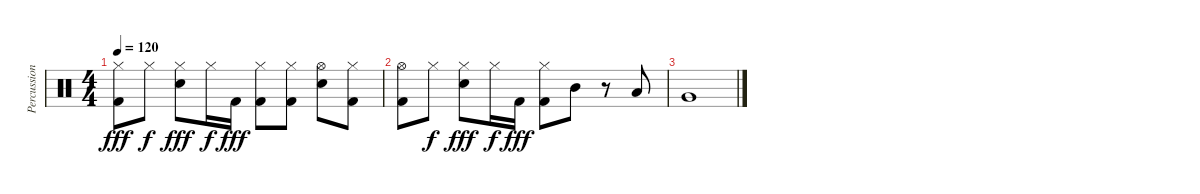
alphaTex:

\track ("Percussions" "Percussion") {instrument percussion}
\staff {score}
\articulation defaults
\ts (4 4)
\tempo 120
\clef neutral
\ks c
("Kick (hit) 2" "Hi-Hat (closed)").8{dy fff} "Hi-Hat (closed)".8{dy f} ("Snare (hit) 2" "Hi-Hat (closed)").8{dy fff} "Hi-Hat (closed)".16{dy f} "Kick (hit) 2".16{dy fff} ("Kick (hit) 2" "Hi-Hat (closed)").8 ("Kick (hit) 2" "Hi-Hat (closed)").8 ("Snare (hit) 2" "Hi-Hat (open)").8 ("Kick (hit) 2" "Hi-Hat (closed)").8 |
("Kick (hit) 2" "Hi-Hat (open)").8 "Hi-Hat (closed)".8{dy f} ("Snare (hit) 2" "Hi-Hat (closed)").8{dy fff} "Hi-Hat (closed)".16{dy f} "Kick (hit) 2".16{dy fff} ("Kick (hit) 2" "Hi-Hat (closed)").8 "Mid Tom (hit)".8 r.8 "Low Tom (hit)".8 |
"Very Low Tom (hit)".1
